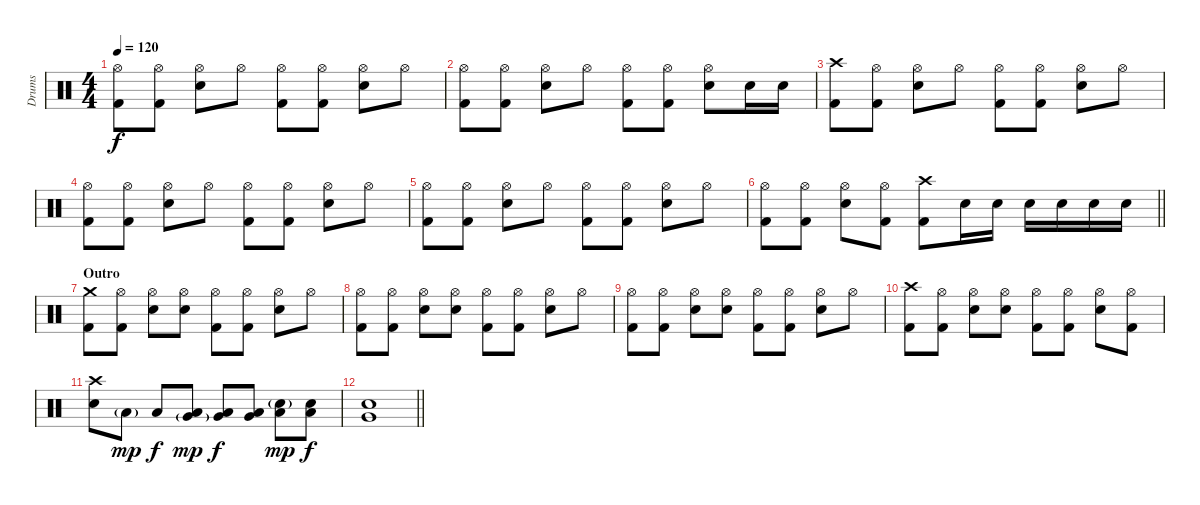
\track ("Drums" "Drums") {instrument percussion}
\staff {score}
\articulation defaults
\ts (4 4)
\tempo 120
\clef neutral
\ks c
("Hi-Hat (open)" "Kick (hit) 2").8{dy f} ("Hi-Hat (open)" "Kick (hit) 2").8 ("Hi-Hat (open)" "Electric Snare (hit)").8 "Hi-Hat (open)".8 ("Hi-Hat (open)" "Kick (hit) 2").8 ("Hi-Hat (open)" "Kick (hit) 2").8 ("Hi-Hat (open)" "Electric Snare (hit)").8 "Hi-Hat (open)".8 |
("Hi-Hat (open)" "Kick (hit) 2").8 ("Hi-Hat (open)" "Kick (hit) 2").8 ("Hi-Hat (open)" "Electric Snare (hit)").8 "Hi-Hat (open)".8 ("Hi-Hat (open)" "Kick (hit) 2").8 ("Hi-Hat (open)" "Kick (hit) 2").8 ("Hi-Hat (open)" "Electric Snare (hit)").8 "Electric Snare (hit)".16 "Electric Snare (hit)".16 |
("Crash high (hit)" "Kick (hit) 2").8 ("Hi-Hat (open)" "Kick (hit) 2").8 ("Hi-Hat (open)" "Electric Snare (hit)").8 "Hi-Hat (open)".8 ("Hi-Hat (open)" "Kick (hit) 2").8 ("Hi-Hat (open)" "Kick (hit) 2").8 ("Hi-Hat (open)" "Electric Snare (hit)").8 "Hi-Hat (open)".8 |
("Hi-Hat (open)" "Kick (hit) 2").8 ("Hi-Hat (open)" "Kick (hit) 2").8 ("Hi-Hat (open)" "Electric Snare (hit)").8 "Hi-Hat (open)".8 ("Hi-Hat (open)" "Kick (hit) 2").8 ("Hi-Hat (open)" "Kick (hit) 2").8 ("Hi-Hat (open)" "Electric Snare (hit)").8 "Hi-Hat (open)".8 |
("Hi-Hat (open)" "Kick (hit) 2").8 ("Hi-Hat (open)" "Kick (hit) 2").8 ("Hi-Hat (open)" "Electric Snare (hit)").8 "Hi-Hat (open)".8 ("Hi-Hat (open)" "Kick (hit) 2").8 ("Hi-Hat (open)" "Kick (hit) 2").8 ("Hi-Hat (open)" "Electric Snare (hit)").8 "Hi-Hat (open)".8 |
\barLineRight lightlight
("Hi-Hat (open)" "Kick (hit) 2").8 ("Hi-Hat (open)" "Kick (hit) 2").8 ("Hi-Hat (open)" "Electric Snare (hit)").8 ("Hi-Hat (open)" "Kick (hit) 2").8 ("Crash high (hit)" "Kick (hit) 2").8 "Electric Snare (hit)".16 "Electric Snare (hit)".16 "Electric Snare (hit)".16 "Electric Snare (hit)".16 "Electric Snare (hit)".16 "Electric Snare (hit)".16 |
\section ("" "Outro")
("Crash medium (hit)" "Kick (hit) 2").8 ("Hi-Hat (open)" "Kick (hit) 2").8 ("Hi-Hat (open)" "Electric Snare (hit)").8 ("Hi-Hat (open)" "Electric Snare (hit)").8 ("Hi-Hat (open)" "Kick (hit) 2").8 ("Hi-Hat (open)" "Kick (hit) 2").8 ("Hi-Hat (open)" "Electric Snare (hit)").8 "Hi-Hat (open)".8 |
("Hi-Hat (open)" "Kick (hit) 2").8 ("Hi-Hat (open)" "Kick (hit) 2").8 ("Hi-Hat (open)" "Electric Snare (hit)").8 ("Hi-Hat (open)" "Electric Snare (hit)").8 ("Hi-Hat (open)" "Kick (hit) 2").8 ("Hi-Hat (open)" "Kick (hit) 2").8 ("Hi-Hat (open)" "Electric Snare (hit)").8 "Hi-Hat (open)".8 |
("Hi-Hat (open)" "Kick (hit) 2").8 ("Hi-Hat (open)" "Kick (hit) 2").8 ("Hi-Hat (open)" "Electric Snare (hit)").8 ("Hi-Hat (open)" "Electric Snare (hit)").8 ("Hi-Hat (open)" "Kick (hit) 2").8 ("Hi-Hat (open)" "Kick (hit) 2").8 ("Hi-Hat (open)" "Electric Snare (hit)").8 "Hi-Hat (open)".8 |
("Crash high (hit)" "Kick (hit) 2").8 ("Hi-Hat (open)" "Kick (hit) 2").8 ("Hi-Hat (open)" "Electric Snare (hit)").8 ("Hi-Hat (open)" "Electric Snare (hit)").8 ("Hi-Hat (open)" "Kick (hit) 2").8 ("Hi-Hat (open)" "Kick (hit) 2").8 ("Hi-Hat (open)" "Electric Snare (hit)").8 ("Hi-Hat (open)" "Kick (hit) 2").8 |
("Crash high (hit)" "Electric Snare (hit)").8 "Low Floor Tom (hit)"{g}.8{dy mp} "Low Floor Tom (hit)".8{dy f} ("Very Low Tom (hit)"{g} "Low Floor Tom (hit)").8{dy mp} ("Very Low Tom (hit)" "Low Floor Tom (hit)").8{dy f} ("Very Low Tom (hit)" "Low Tom (hit)").8 ("Electric Snare (hit)"{g} "Low Tom (hit)").8{dy mp} ("Electric Snare (hit)" "Low Tom (hit)").8{dy f} |
\barLineRight lightlight
("Very Low Tom (hit)" "Electric Snare (hit)").1
